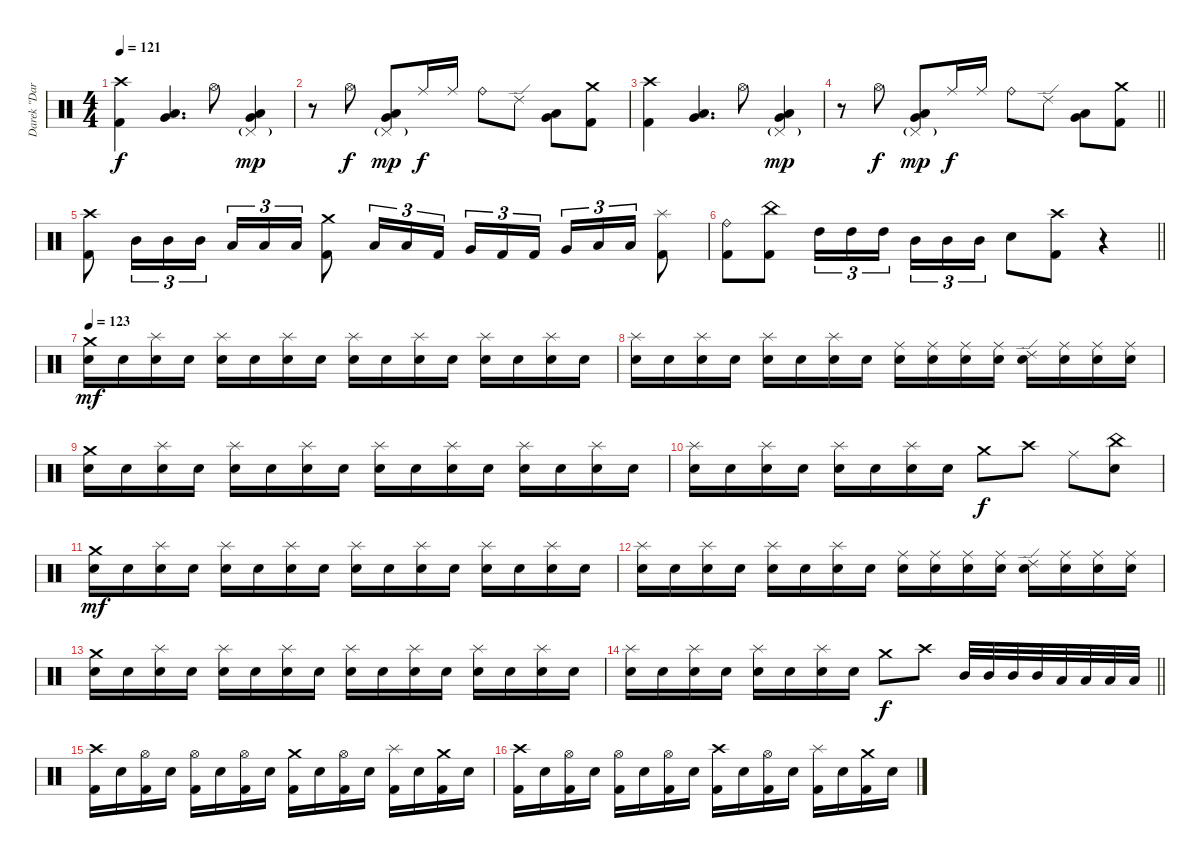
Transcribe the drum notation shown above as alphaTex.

\track ("Darek \"Daray\" Brzozowski " "Darek \"Dar") {instrument percussion}
\staff {score}
\articulation defaults
\ts (4 4)
\tempo 121
\clef neutral
\ks c
("Crash high (hit)" "Kick (hit) 2").4{dy f} ("Very Low Tom (hit)" "Low Floor Tom (hit)").4{d} "Hi-Hat (open)".8 ("Pedal Hi-Hat (hit)"{g} "Very Low Tom (hit)" "Low Floor Tom (hit)").4{dy mp} |
r.8 "Hi-Hat (open)".8{dy f} ("Pedal Hi-Hat (hit)"{g} "Very Low Tom (hit)" "Low Floor Tom (hit)").8{dy mp} "Ride (middle)".16{dy f} "Ride (middle)".16 "Ride (bell)".8 "Ride (edge) 2".8 ("Very Low Tom (hit)" "Low Floor Tom (hit)").8 ("Crash medium (hit)" "Kick (hit) 2").8 |
("Crash high (hit)" "Kick (hit) 2").4 ("Very Low Tom (hit)" "Low Floor Tom (hit)").4{d} "Hi-Hat (open)".8 ("Pedal Hi-Hat (hit)"{g} "Very Low Tom (hit)" "Low Floor Tom (hit)").4{dy mp} |
\barLineRight lightlight
r.8 "Hi-Hat (open)".8{dy f} ("Pedal Hi-Hat (hit)"{g} "Very Low Tom (hit)" "Low Floor Tom (hit)").8{dy mp} "Ride (middle)".16{dy f} "Ride (middle)".16 "Ride (bell)".8 "Ride (edge) 2".8 ("Very Low Tom (hit)" "Low Floor Tom (hit)").8 ("Crash medium (hit)" "Kick (hit) 2").8 |
("Crash high (hit)" "Kick (hit) 2").8 "Mid Tom (hit)".16{tu (3 2)} "Mid Tom (hit)".16{tu (3 2)} "Mid Tom (hit)".16{tu (3 2)} "Low Tom (hit)".16{tu (3 2)} "Low Tom (hit)".16{tu (3 2)} "Low Tom (hit)".16{tu (3 2)} ("Crash medium (hit)" "Kick (hit) 2").8 "Low Tom (hit)".16{tu (3 2)} "Low Tom (hit)".16{tu (3 2)} "Kick (hit) 2".16{tu (3 2) beam splitsecondary} "Very Low Tom (hit)".16{tu (3 2)} "Kick (hit) 2".16{tu (3 2)} "Kick (hit) 2".16{tu (3 2)} "Very Low Tom (hit)".16{tu (3 2)} "Low Floor Tom (hit)".16{tu (3 2)} "Low Floor Tom (hit)".16{tu (3 2)} ("Splash (hit)" "Kick (hit) 2").8 |
\barLineRight lightlight
("Ride (bell)" "Kick (hit) 2").8 ("China (hit)" "Kick (hit) 2").8 "High Tom (hit)".16{tu (3 2)} "High Tom (hit)".16{tu (3 2)} "High Tom (hit)".16{tu (3 2) beam splitsecondary} "Mid Tom (hit)".16{tu (3 2)} "Mid Tom (hit)".16{tu (3 2)} "Mid Tom (hit)".16{tu (3 2)} "Electric Snare (hit)".8 ("Crash high (hit)" "Kick (hit) 2").8 r.4 |
\tempo 123
("Crash medium (hit)" "Electric Snare (hit)").16{dy mf} "Electric Snare (hit)".16 ("Splash (hit)" "Electric Snare (hit)").16 "Electric Snare (hit)".16 ("Splash (hit)" "Electric Snare (hit)").16 "Electric Snare (hit)".16 ("Splash (hit)" "Electric Snare (hit)").16 "Electric Snare (hit)".16 ("Splash (hit)" "Electric Snare (hit)").16 "Electric Snare (hit)".16 ("Splash (hit)" "Electric Snare (hit)").16 "Electric Snare (hit)".16 ("Splash (hit)" "Electric Snare (hit)").16 "Electric Snare (hit)".16 ("Splash (hit)" "Electric Snare (hit)").16 "Electric Snare (hit)".16 |
("Splash (hit)" "Electric Snare (hit)").16 "Electric Snare (hit)".16 ("Splash (hit)" "Electric Snare (hit)").16 "Electric Snare (hit)".16 ("Splash (hit)" "Electric Snare (hit)").16 "Electric Snare (hit)".16 ("Splash (hit)" "Electric Snare (hit)").16 "Electric Snare (hit)".16 ("Ride (middle)" "Electric Snare (hit)").16 ("Ride (middle)" "Electric Snare (hit)").16 ("Ride (middle)" "Electric Snare (hit)").16 ("Ride (middle)" "Electric Snare (hit)").16 ("Ride (edge) 2" "Electric Snare (hit)").16 ("Ride (middle)" "Electric Snare (hit)").16 ("Ride (middle)" "Electric Snare (hit)").16 ("Ride (middle)" "Electric Snare (hit)").16 |
("Crash medium (hit)" "Electric Snare (hit)").16 "Electric Snare (hit)".16 ("Splash (hit)" "Electric Snare (hit)").16 "Electric Snare (hit)".16 ("Splash (hit)" "Electric Snare (hit)").16 "Electric Snare (hit)".16 ("Splash (hit)" "Electric Snare (hit)").16 "Electric Snare (hit)".16 ("Splash (hit)" "Electric Snare (hit)").16 "Electric Snare (hit)".16 ("Splash (hit)" "Electric Snare (hit)").16 "Electric Snare (hit)".16 ("Splash (hit)" "Electric Snare (hit)").16 "Electric Snare (hit)".16 ("Splash (hit)" "Electric Snare (hit)").16 "Electric Snare (hit)".16 |
("Splash (hit)" "Electric Snare (hit)").16 "Electric Snare (hit)".16 ("Splash (hit)" "Electric Snare (hit)").16 "Electric Snare (hit)".16 ("Splash (hit)" "Electric Snare (hit)").16 "Electric Snare (hit)".16 ("Splash (hit)" "Electric Snare (hit)").16 "Electric Snare (hit)".16 "Crash medium (hit)".8{dy f} "Crash high (hit)".8 "Ride (middle)".8 ("China (hit)" "Electric Snare (hit)").8 |
("Crash medium (hit)" "Electric Snare (hit)").16{dy mf} "Electric Snare (hit)".16 ("Splash (hit)" "Electric Snare (hit)").16 "Electric Snare (hit)".16 ("Splash (hit)" "Electric Snare (hit)").16 "Electric Snare (hit)".16 ("Splash (hit)" "Electric Snare (hit)").16 "Electric Snare (hit)".16 ("Splash (hit)" "Electric Snare (hit)").16 "Electric Snare (hit)".16 ("Splash (hit)" "Electric Snare (hit)").16 "Electric Snare (hit)".16 ("Splash (hit)" "Electric Snare (hit)").16 "Electric Snare (hit)".16 ("Splash (hit)" "Electric Snare (hit)").16 "Electric Snare (hit)".16 |
("Splash (hit)" "Electric Snare (hit)").16 "Electric Snare (hit)".16 ("Splash (hit)" "Electric Snare (hit)").16 "Electric Snare (hit)".16 ("Splash (hit)" "Electric Snare (hit)").16 "Electric Snare (hit)".16 ("Splash (hit)" "Electric Snare (hit)").16 "Electric Snare (hit)".16 ("Ride (middle)" "Electric Snare (hit)").16 ("Ride (middle)" "Electric Snare (hit)").16 ("Ride (middle)" "Electric Snare (hit)").16 ("Ride (middle)" "Electric Snare (hit)").16 ("Ride (edge) 2" "Electric Snare (hit)").16 ("Ride (middle)" "Electric Snare (hit)").16 ("Ride (middle)" "Electric Snare (hit)").16 ("Ride (middle)" "Electric Snare (hit)").16 |
("Crash medium (hit)" "Electric Snare (hit)").16 "Electric Snare (hit)".16 ("Splash (hit)" "Electric Snare (hit)").16 "Electric Snare (hit)".16 ("Splash (hit)" "Electric Snare (hit)").16 "Electric Snare (hit)".16 ("Splash (hit)" "Electric Snare (hit)").16 "Electric Snare (hit)".16 ("Splash (hit)" "Electric Snare (hit)").16 "Electric Snare (hit)".16 ("Splash (hit)" "Electric Snare (hit)").16 "Electric Snare (hit)".16 ("Splash (hit)" "Electric Snare (hit)").16 "Electric Snare (hit)".16 ("Splash (hit)" "Electric Snare (hit)").16 "Electric Snare (hit)".16 |
\barLineRight lightlight
("Splash (hit)" "Electric Snare (hit)").16 "Electric Snare (hit)".16 ("Splash (hit)" "Electric Snare (hit)").16 "Electric Snare (hit)".16 ("Splash (hit)" "Electric Snare (hit)").16 "Electric Snare (hit)".16 ("Splash (hit)" "Electric Snare (hit)").16 "Electric Snare (hit)".16 "Crash medium (hit)".8{dy f} "Crash high (hit)".8 "Mid Tom (hit)".32 "Mid Tom (hit)".32 "Mid Tom (hit)".32 "Mid Tom (hit)".32 "Low Tom (hit)".32 "Low Tom (hit)".32 "Low Tom (hit)".32 "Low Tom (hit)".32 |
("Crash high (hit)" "Kick (hit) 2").16 "Electric Snare (hit)".16 ("Hi-Hat (open)" "Kick (hit) 2").16 "Electric Snare (hit)".16 ("Hi-Hat (open)" "Kick (hit) 2").16 "Electric Snare (hit)".16 ("Hi-Hat (open)" "Kick (hit) 2").16 "Electric Snare (hit)".16 ("Crash medium (hit)" "Kick (hit) 2").16 "Electric Snare (hit)".16 ("Hi-Hat (open)" "Kick (hit) 2").16 "Electric Snare (hit)".16 ("Splash (hit)" "Kick (hit) 2").16 "Electric Snare (hit)".16 ("Crash medium (hit)" "Kick (hit) 2").16 "Electric Snare (hit)".16 |
("Crash high (hit)" "Kick (hit) 2").16 "Electric Snare (hit)".16 ("Hi-Hat (open)" "Kick (hit) 2").16 "Electric Snare (hit)".16 ("Hi-Hat (open)" "Kick (hit) 2").16 "Electric Snare (hit)".16 ("Hi-Hat (open)" "Kick (hit) 2").16 "Electric Snare (hit)".16 ("Crash high (hit)" "Kick (hit) 2").16 "Electric Snare (hit)".16 ("Hi-Hat (open)" "Kick (hit) 2").16 "Electric Snare (hit)".16 ("Splash (hit)" "Kick (hit) 2").16 "Electric Snare (hit)".16 ("Crash medium (hit)" "Kick (hit) 2").16 "Electric Snare (hit)".16
